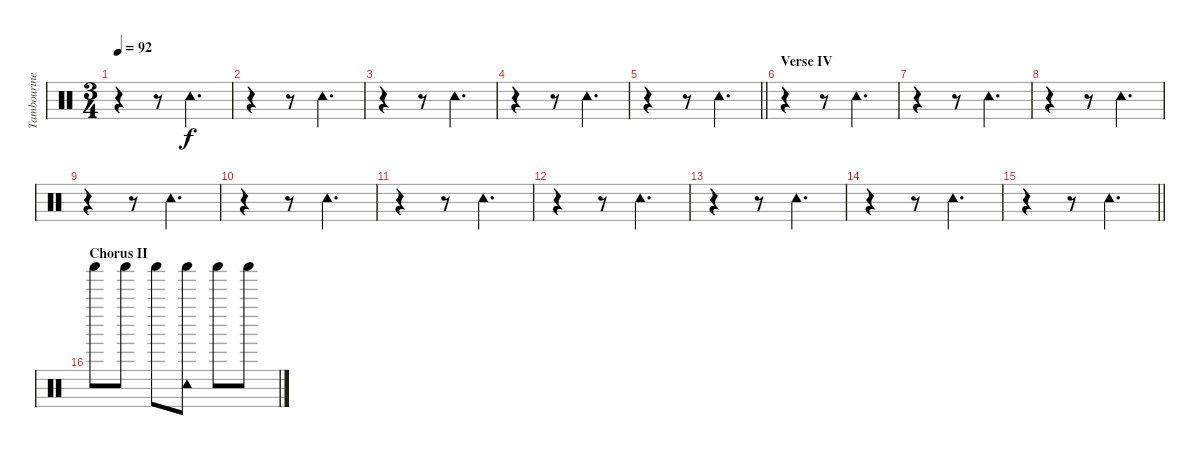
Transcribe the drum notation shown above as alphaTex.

\track ("Tambourine" "Tambourine") {instrument percussion}
\staff {score}
\articulation defaults
\ts (3 4)
\tempo 92
\clef neutral
\ks c
r.4{dy f} r.8 "Tambourine (hit)".4{d} |
r.4 r.8 "Tambourine (hit)".4{d} |
r.4 r.8 "Tambourine (hit)".4{d} |
r.4 r.8 "Tambourine (hit)".4{d} |
\barLineRight lightlight
r.4 r.8 "Tambourine (hit)".4{d} |
\section ("" "Verse IV")
r.4 r.8 "Tambourine (hit)".4{d} |
r.4 r.8 "Tambourine (hit)".4{d} |
r.4 r.8 "Tambourine (hit)".4{d} |
r.4 r.8 "Tambourine (hit)".4{d} |
r.4 r.8 "Tambourine (hit)".4{d} |
r.4 r.8 "Tambourine (hit)".4{d} |
r.4 r.8 "Tambourine (hit)".4{d} |
r.4 r.8 "Tambourine (hit)".4{d} |
r.4 r.8 "Tambourine (hit)".4{d} |
\barLineRight lightlight
r.4 r.8 "Tambourine (hit)".4{d} |
\section ("" "Chorus II")
"Shaker (hit)".8 "Shaker (hit)".8 "Shaker (hit)".8 ("Tambourine (hit)" "Shaker (hit)").8 "Shaker (hit)".8 "Shaker (hit)".8
